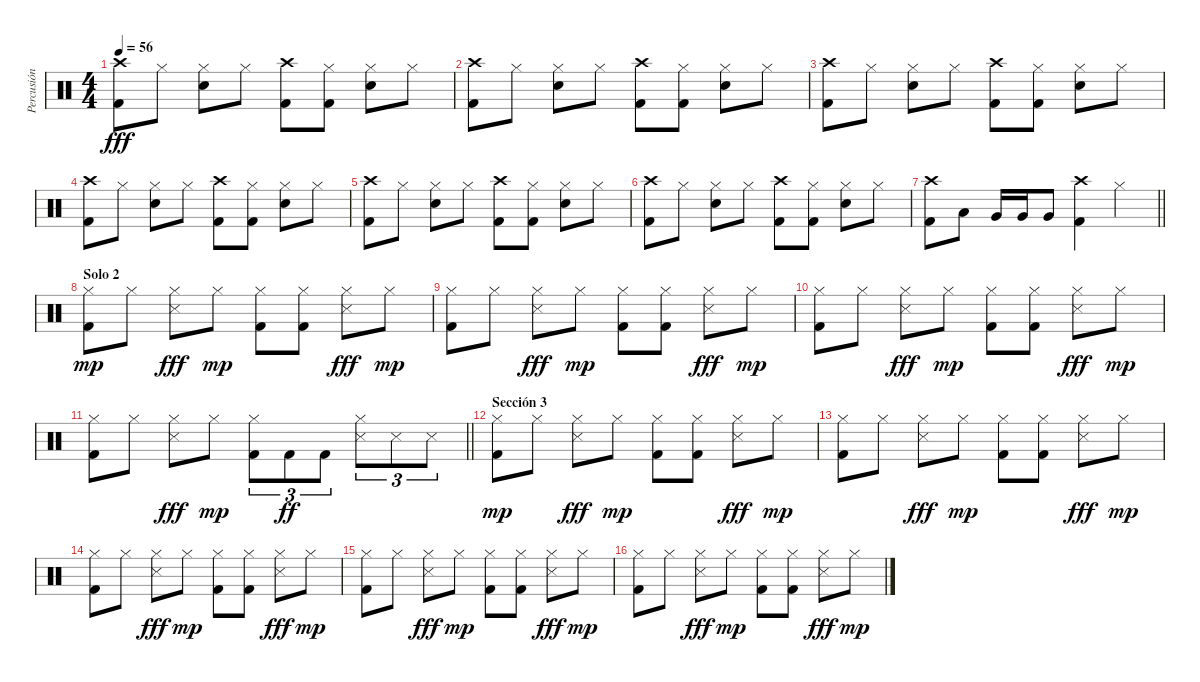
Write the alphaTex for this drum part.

\track ("Percusión" "Percusión") {instrument percussion}
\staff {score}
\articulation defaults
\ts (4 4)
\tempo 56
\clef neutral
\ks c
("Crash high (hit)" "Kick (hit) 2").8{dy fff} "Hi-Hat (closed)".8 ("Hi-Hat (closed)" "Snare (hit) 2").8 "Hi-Hat (closed)".8 ("Crash high (hit)" "Kick (hit) 2").8 ("Hi-Hat (closed)" "Kick (hit) 2").8 ("Hi-Hat (closed)" "Snare (hit) 2").8 "Hi-Hat (closed)".8 |
("Crash high (hit)" "Kick (hit) 2").8 "Hi-Hat (closed)".8 ("Hi-Hat (closed)" "Snare (hit) 2").8 "Hi-Hat (closed)".8 ("Crash high (hit)" "Kick (hit) 2").8 ("Hi-Hat (closed)" "Kick (hit) 2").8 ("Hi-Hat (closed)" "Snare (hit) 2").8 "Hi-Hat (closed)".8 |
("Crash high (hit)" "Kick (hit) 2").8 "Hi-Hat (closed)".8 ("Hi-Hat (closed)" "Snare (hit) 2").8 "Hi-Hat (closed)".8 ("Crash high (hit)" "Kick (hit) 2").8 ("Hi-Hat (closed)" "Kick (hit) 2").8 ("Hi-Hat (closed)" "Snare (hit) 2").8 "Hi-Hat (closed)".8 |
("Crash high (hit)" "Kick (hit) 2").8 "Hi-Hat (closed)".8 ("Hi-Hat (closed)" "Snare (hit) 2").8 "Hi-Hat (closed)".8 ("Crash high (hit)" "Kick (hit) 2").8 ("Hi-Hat (closed)" "Kick (hit) 2").8 ("Hi-Hat (closed)" "Snare (hit) 2").8 "Hi-Hat (closed)".8 |
("Crash high (hit)" "Kick (hit) 2").8 "Hi-Hat (closed)".8 ("Hi-Hat (closed)" "Snare (hit) 2").8 "Hi-Hat (closed)".8 ("Crash high (hit)" "Kick (hit) 2").8 ("Hi-Hat (closed)" "Kick (hit) 2").8 ("Hi-Hat (closed)" "Snare (hit) 2").8 "Hi-Hat (closed)".8 |
("Crash high (hit)" "Kick (hit) 2").8 "Hi-Hat (closed)".8 ("Hi-Hat (closed)" "Snare (hit) 2").8 "Hi-Hat (closed)".8 ("Crash high (hit)" "Kick (hit) 2").8 ("Hi-Hat (closed)" "Kick (hit) 2").8 ("Hi-Hat (closed)" "Snare (hit) 2").8 "Hi-Hat (closed)".8 |
\barLineRight lightlight
("Crash high (hit)" "Kick (hit) 2").8 "Low Tom (hit)".8 "Very Low Tom (hit)".16 "Very Low Tom (hit)".16 "Very Low Tom (hit)".8 ("Crash high (hit)" "Kick (hit) 2").4 "Hi-Hat (closed)".4 |
\section ("" "Solo 2")
("Hi-Hat (closed)" "Kick (hit) 2").8{dy mp} "Hi-Hat (closed)".8 ("Hi-Hat (closed)" "Metronome (hit)").8{dy fff} "Hi-Hat (closed)".8{dy mp} ("Hi-Hat (closed)" "Kick (hit) 2").8 ("Hi-Hat (closed)" "Kick (hit) 2").8 ("Hi-Hat (closed)" "Metronome (hit)").8{dy fff} "Hi-Hat (closed)".8{dy mp} |
("Hi-Hat (closed)" "Kick (hit) 2").8 "Hi-Hat (closed)".8 ("Hi-Hat (closed)" "Metronome (hit)").8{dy fff} "Hi-Hat (closed)".8{dy mp} ("Hi-Hat (closed)" "Kick (hit) 2").8 ("Hi-Hat (closed)" "Kick (hit) 2").8 ("Hi-Hat (closed)" "Metronome (hit)").8{dy fff} "Hi-Hat (closed)".8{dy mp} |
("Hi-Hat (closed)" "Kick (hit) 2").8 "Hi-Hat (closed)".8 ("Hi-Hat (closed)" "Metronome (hit)").8{dy fff} "Hi-Hat (closed)".8{dy mp} ("Hi-Hat (closed)" "Kick (hit) 2").8 ("Hi-Hat (closed)" "Kick (hit) 2").8 ("Hi-Hat (closed)" "Metronome (hit)").8{dy fff} "Hi-Hat (closed)".8{dy mp} |
\barLineRight lightlight
("Hi-Hat (closed)" "Kick (hit) 2").8 "Hi-Hat (closed)".8 ("Hi-Hat (closed)" "Metronome (hit)").8{dy fff} "Hi-Hat (closed)".8{dy mp} ("Hi-Hat (closed)" "Kick (hit) 2").8{tu (3 2)} "Kick (hit) 2".8{tu (3 2) dy ff} "Kick (hit) 2".8{tu (3 2)} ("Hi-Hat (closed)" "Metronome (hit)").8{tu (3 2)} "Metronome (hit)".8{tu (3 2)} "Metronome (hit)".8{tu (3 2)} |
\section ("" "Sección 3")
("Hi-Hat (closed)" "Kick (hit) 2").8{dy mp} "Hi-Hat (closed)".8 ("Hi-Hat (closed)" "Metronome (hit)").8{dy fff} "Hi-Hat (closed)".8{dy mp} ("Hi-Hat (closed)" "Kick (hit) 2").8 ("Hi-Hat (closed)" "Kick (hit) 2").8 ("Hi-Hat (closed)" "Metronome (hit)").8{dy fff} "Hi-Hat (closed)".8{dy mp} |
("Hi-Hat (closed)" "Kick (hit) 2").8 "Hi-Hat (closed)".8 ("Hi-Hat (closed)" "Metronome (hit)").8{dy fff} "Hi-Hat (closed)".8{dy mp} ("Hi-Hat (closed)" "Kick (hit) 2").8 ("Hi-Hat (closed)" "Kick (hit) 2").8 ("Hi-Hat (closed)" "Metronome (hit)").8{dy fff} "Hi-Hat (closed)".8{dy mp} |
("Hi-Hat (closed)" "Kick (hit) 2").8 "Hi-Hat (closed)".8 ("Hi-Hat (closed)" "Metronome (hit)").8{dy fff} "Hi-Hat (closed)".8{dy mp} ("Hi-Hat (closed)" "Kick (hit) 2").8 ("Hi-Hat (closed)" "Kick (hit) 2").8 ("Hi-Hat (closed)" "Metronome (hit)").8{dy fff} "Hi-Hat (closed)".8{dy mp} |
("Hi-Hat (closed)" "Kick (hit) 2").8 "Hi-Hat (closed)".8 ("Hi-Hat (closed)" "Metronome (hit)").8{dy fff} "Hi-Hat (closed)".8{dy mp} ("Hi-Hat (closed)" "Kick (hit) 2").8 ("Hi-Hat (closed)" "Kick (hit) 2").8 ("Hi-Hat (closed)" "Metronome (hit)").8{dy fff} "Hi-Hat (closed)".8{dy mp} |
("Hi-Hat (closed)" "Kick (hit) 2").8 "Hi-Hat (closed)".8 ("Hi-Hat (closed)" "Metronome (hit)").8{dy fff} "Hi-Hat (closed)".8{dy mp} ("Hi-Hat (closed)" "Kick (hit) 2").8 ("Hi-Hat (closed)" "Kick (hit) 2").8 ("Hi-Hat (closed)" "Metronome (hit)").8{dy fff} "Hi-Hat (closed)".8{dy mp}
